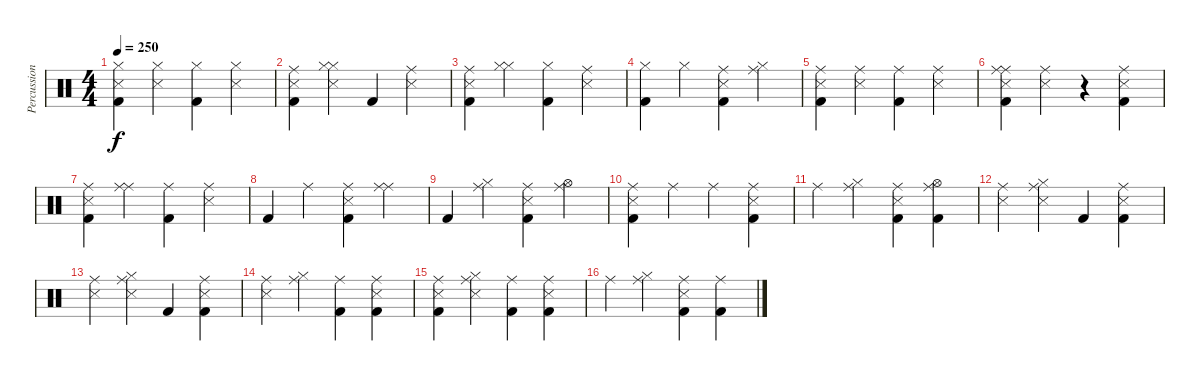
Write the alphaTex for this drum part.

\track ("Percussion" "Percussion") {instrument percussion}
\staff {score}
\articulation defaults
\ts (4 4)
\tempo 250
\clef neutral
\ks c
("Kick (hit) 2" "Snare (side stick) 3" "Hi-Hat (closed)").4{dy f} ("Snare (side stick) 3" "Hi-Hat (closed)").4 ("Kick (hit) 2" "Hi-Hat (closed)").4 ("Snare (side stick) 3" "Hi-Hat (closed)").4 |
("Kick (hit) 2" "Snare (side stick) 3" "Ride (middle)").4 ("Snare (side stick) 3" "Hi-Hat (closed)" "Hi-Hat (closed)").4 "Kick (hit) 2".4 ("Snare (side stick) 3" "Ride (middle)").4 |
("Kick (hit) 2" "Snare (side stick) 3" "Ride (middle)").4 ("Hi-Hat (closed)" "Hi-Hat (closed)").4 ("Kick (hit) 2" "Hi-Hat (closed)").4 ("Snare (side stick) 3" "Ride (middle)").4 |
("Kick (hit) 2" "Hi-Hat (closed)").4 "Hi-Hat (closed)".4 ("Kick (hit) 2" "Snare (side stick) 3" "Ride (middle)").4 ("Ride (middle)" "Hi-Hat (closed)").4 |
("Kick (hit) 2" "Snare (side stick) 3" "Ride (middle)").4 ("Snare (side stick) 3" "Ride (middle)").4 ("Kick (hit) 2" "Ride (middle)").4 ("Snare (side stick) 3" "Ride (middle)").4 |
("Kick (hit) 2" "Snare (side stick) 3" "Ride (middle)" "Ride (middle)").4 ("Snare (side stick) 3" "Ride (middle)").4 r.4 ("Kick (hit) 2" "Snare (side stick) 3" "Ride (middle)").4 |
("Kick (hit) 2" "Snare (side stick) 3" "Ride (middle)").4 ("Ride (middle)" "Ride (middle)").4 ("Kick (hit) 2" "Ride (middle)").4 ("Snare (side stick) 3" "Ride (middle)").4 |
"Kick (hit) 2".4 "Ride (middle)".4 ("Kick (hit) 2" "Snare (side stick) 3" "Ride (middle)").4 ("Ride (middle)" "Ride (middle)").4 |
"Kick (hit) 2".4 ("Ride (middle)" "Hi-Hat (closed)").4 ("Kick (hit) 2" "Snare (side stick) 3" "Ride (middle)").4 ("Ride (middle)" "Hi-Hat (open)").4 |
("Kick (hit) 2" "Snare (side stick) 3" "Ride (middle)").4 "Ride (middle)".4 "Ride (middle)".4 ("Kick (hit) 2" "Snare (side stick) 3" "Ride (middle)").4 |
"Ride (middle)".4 ("Ride (middle)" "Hi-Hat (closed)").4 ("Kick (hit) 2" "Snare (side stick) 3" "Ride (middle)").4 ("Kick (hit) 2" "Ride (middle)" "Hi-Hat (open)").4 |
("Snare (side stick) 3" "Ride (middle)").4 ("Snare (side stick) 3" "Ride (middle)" "Hi-Hat (closed)").4 "Kick (hit) 2".4 ("Kick (hit) 2" "Snare (side stick) 3" "Ride (middle)").4 |
("Snare (side stick) 3" "Ride (middle)").4 ("Snare (side stick) 3" "Ride (middle)" "Hi-Hat (closed)").4 "Kick (hit) 2".4 ("Kick (hit) 2" "Snare (side stick) 3" "Ride (middle)").4 |
("Snare (side stick) 3" "Ride (middle)").4 ("Ride (middle)" "Hi-Hat (closed)").4 ("Kick (hit) 2" "Ride (middle)").4 ("Kick (hit) 2" "Snare (side stick) 3" "Ride (middle)").4 |
("Kick (hit) 2" "Snare (side stick) 3" "Ride (middle)").4 ("Snare (side stick) 3" "Ride (middle)" "Hi-Hat (closed)").4 ("Kick (hit) 2" "Ride (middle)").4 ("Kick (hit) 2" "Snare (side stick) 3" "Ride (middle)").4 |
"Ride (middle)".4 ("Ride (middle)" "Hi-Hat (closed)").4 ("Kick (hit) 2" "Snare (side stick) 3" "Ride (middle)").4 ("Kick (hit) 2" "Ride (middle)").4
